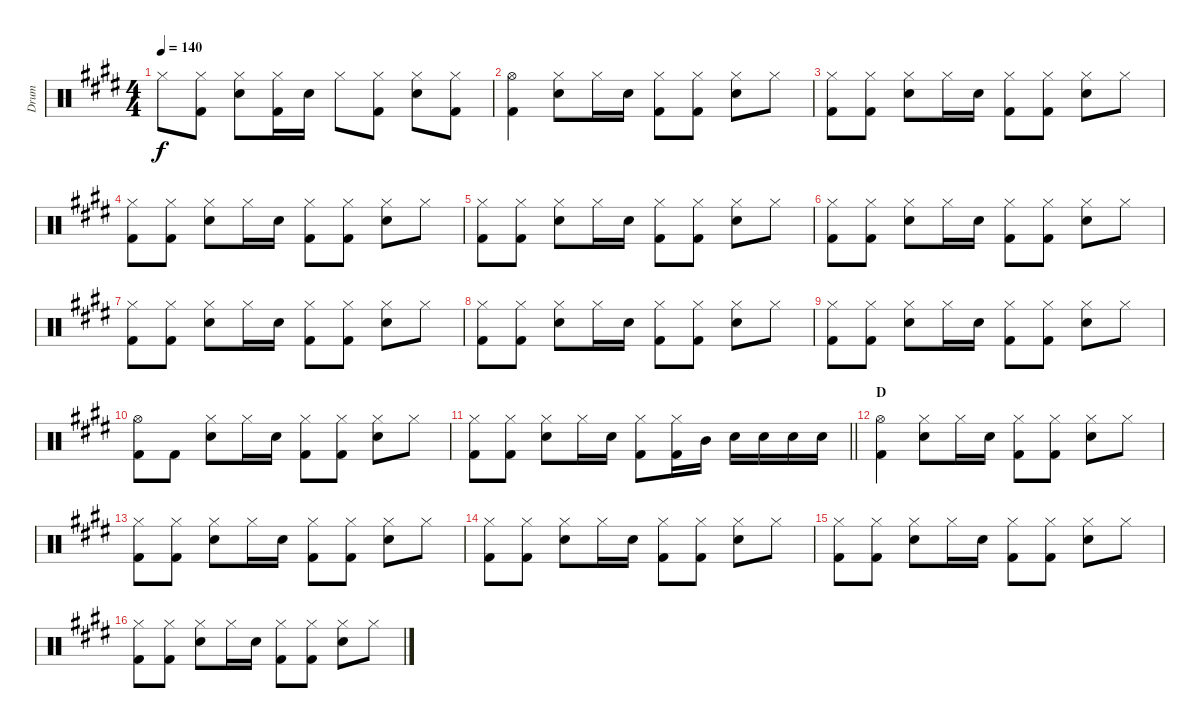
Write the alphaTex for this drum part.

\track ("Drum" "Drum") {instrument percussion}
\staff {score}
\articulation defaults
\ts (4 4)
\tempo 140
\clef neutral
\ks c#minor "Hi-Hat (closed)".8{dy f}
("Hi-Hat (closed)" "Kick (hit) 2").8 ("Hi-Hat (closed)" "Snare (hit) 2").8 ("Hi-Hat (closed)" "Kick (hit) 2").16 "Snare (hit) 2".16 "Hi-Hat (closed)".8 ("Hi-Hat (closed)" "Kick (hit) 2").8 ("Hi-Hat (closed)" "Snare (hit) 2").8 ("Hi-Hat (closed)" "Kick (hit) 2").8 |
("Hi-Hat (open)" "Kick (hit) 2").4 ("Hi-Hat (closed)" "Snare (hit) 2").8 "Hi-Hat (closed)".16 "Snare (hit) 2".16 ("Hi-Hat (closed)" "Kick (hit) 2").8 ("Hi-Hat (closed)" "Kick (hit) 2").8 ("Hi-Hat (closed)" "Snare (hit) 2").8 "Hi-Hat (closed)".8 |
("Hi-Hat (closed)" "Kick (hit) 2").8 ("Hi-Hat (closed)" "Kick (hit) 2").8 ("Hi-Hat (closed)" "Snare (hit) 2").8 "Hi-Hat (closed)".16 "Snare (hit) 2".16 ("Hi-Hat (closed)" "Kick (hit) 2").8 ("Hi-Hat (closed)" "Kick (hit) 2").8 ("Hi-Hat (closed)" "Snare (hit) 2").8 "Hi-Hat (closed)".8 |
("Hi-Hat (closed)" "Kick (hit) 2").8 ("Hi-Hat (closed)" "Kick (hit) 2").8 ("Hi-Hat (closed)" "Snare (hit) 2").8 "Hi-Hat (closed)".16 "Snare (hit) 2".16 ("Hi-Hat (closed)" "Kick (hit) 2").8 ("Hi-Hat (closed)" "Kick (hit) 2").8 ("Hi-Hat (closed)" "Snare (hit) 2").8 "Hi-Hat (closed)".8 |
("Hi-Hat (closed)" "Kick (hit) 2").8 ("Hi-Hat (closed)" "Kick (hit) 2").8 ("Hi-Hat (closed)" "Snare (hit) 2").8 "Hi-Hat (closed)".16 "Snare (hit) 2".16 ("Hi-Hat (closed)" "Kick (hit) 2").8 ("Hi-Hat (closed)" "Kick (hit) 2").8 ("Hi-Hat (closed)" "Snare (hit) 2").8 "Hi-Hat (closed)".8 |
("Hi-Hat (closed)" "Kick (hit) 2").8 ("Hi-Hat (closed)" "Kick (hit) 2").8 ("Hi-Hat (closed)" "Snare (hit) 2").8 "Hi-Hat (closed)".16 "Snare (hit) 2".16 ("Hi-Hat (closed)" "Kick (hit) 2").8 ("Hi-Hat (closed)" "Kick (hit) 2").8 ("Hi-Hat (closed)" "Snare (hit) 2").8 "Hi-Hat (closed)".8 |
("Hi-Hat (closed)" "Kick (hit) 2").8 ("Hi-Hat (closed)" "Kick (hit) 2").8 ("Hi-Hat (closed)" "Snare (hit) 2").8 "Hi-Hat (closed)".16 "Snare (hit) 2".16 ("Hi-Hat (closed)" "Kick (hit) 2").8 ("Hi-Hat (closed)" "Kick (hit) 2").8 ("Hi-Hat (closed)" "Snare (hit) 2").8 "Hi-Hat (closed)".8 |
("Hi-Hat (closed)" "Kick (hit) 2").8 ("Hi-Hat (closed)" "Kick (hit) 2").8 ("Hi-Hat (closed)" "Snare (hit) 2").8 "Hi-Hat (closed)".16 "Snare (hit) 2".16 ("Hi-Hat (closed)" "Kick (hit) 2").8 ("Hi-Hat (closed)" "Kick (hit) 2").8 ("Hi-Hat (closed)" "Snare (hit) 2").8 "Hi-Hat (closed)".8 |
("Hi-Hat (closed)" "Kick (hit) 2").8 ("Hi-Hat (closed)" "Kick (hit) 2").8 ("Hi-Hat (closed)" "Snare (hit) 2").8 "Hi-Hat (closed)".16 "Snare (hit) 2".16 ("Hi-Hat (closed)" "Kick (hit) 2").8 ("Hi-Hat (closed)" "Kick (hit) 2").8 ("Hi-Hat (closed)" "Snare (hit) 2").8 "Hi-Hat (closed)".8 |
("Hi-Hat (open)" "Kick (hit) 2").8 "Kick (hit) 2".8 ("Hi-Hat (closed)" "Snare (hit) 2").8 "Hi-Hat (closed)".16 "Snare (hit) 2".16 ("Hi-Hat (closed)" "Kick (hit) 2").8 ("Hi-Hat (closed)" "Kick (hit) 2").8 ("Hi-Hat (closed)" "Snare (hit) 2").8 "Hi-Hat (closed)".8 |
\barLineRight lightlight
("Hi-Hat (closed)" "Kick (hit) 2").8 ("Hi-Hat (closed)" "Kick (hit) 2").8 ("Hi-Hat (closed)" "Snare (hit) 2").8 "Hi-Hat (closed)".16 "Snare (hit) 2".16 ("Hi-Hat (closed)" "Kick (hit) 2").8 ("Hi-Hat (closed)" "Kick (hit) 2").16 "Mid Tom (hit)".16 "Snare (hit) 2".16 "Snare (hit) 2".16 "Snare (hit) 2".16 "Snare (hit) 2".16 |
\section ("" "D")
("Hi-Hat (open)" "Kick (hit) 2").4 ("Hi-Hat (closed)" "Snare (hit) 2").8 "Hi-Hat (closed)".16 "Snare (hit) 2".16 ("Hi-Hat (closed)" "Kick (hit) 2").8 ("Hi-Hat (closed)" "Kick (hit) 2").8 ("Hi-Hat (closed)" "Snare (hit) 2").8 "Hi-Hat (closed)".8 |
("Hi-Hat (closed)" "Kick (hit) 2").8 ("Hi-Hat (closed)" "Kick (hit) 2").8 ("Hi-Hat (closed)" "Snare (hit) 2").8 "Hi-Hat (closed)".16 "Snare (hit) 2".16 ("Hi-Hat (closed)" "Kick (hit) 2").8 ("Hi-Hat (closed)" "Kick (hit) 2").8 ("Hi-Hat (closed)" "Snare (hit) 2").8 "Hi-Hat (closed)".8 |
("Hi-Hat (closed)" "Kick (hit) 2").8 ("Hi-Hat (closed)" "Kick (hit) 2").8 ("Hi-Hat (closed)" "Snare (hit) 2").8 "Hi-Hat (closed)".16 "Snare (hit) 2".16 ("Hi-Hat (closed)" "Kick (hit) 2").8 ("Hi-Hat (closed)" "Kick (hit) 2").8 ("Hi-Hat (closed)" "Snare (hit) 2").8 "Hi-Hat (closed)".8 |
("Hi-Hat (closed)" "Kick (hit) 2").8 ("Hi-Hat (closed)" "Kick (hit) 2").8 ("Hi-Hat (closed)" "Snare (hit) 2").8 "Hi-Hat (closed)".16 "Snare (hit) 2".16 ("Hi-Hat (closed)" "Kick (hit) 2").8 ("Hi-Hat (closed)" "Kick (hit) 2").8 ("Hi-Hat (closed)" "Snare (hit) 2").8 "Hi-Hat (closed)".8 |
("Hi-Hat (closed)" "Kick (hit) 2").8 ("Hi-Hat (closed)" "Kick (hit) 2").8 ("Hi-Hat (closed)" "Snare (hit) 2").8 "Hi-Hat (closed)".16 "Snare (hit) 2".16 ("Hi-Hat (closed)" "Kick (hit) 2").8 ("Hi-Hat (closed)" "Kick (hit) 2").8 ("Hi-Hat (closed)" "Snare (hit) 2").8 "Hi-Hat (closed)".8
